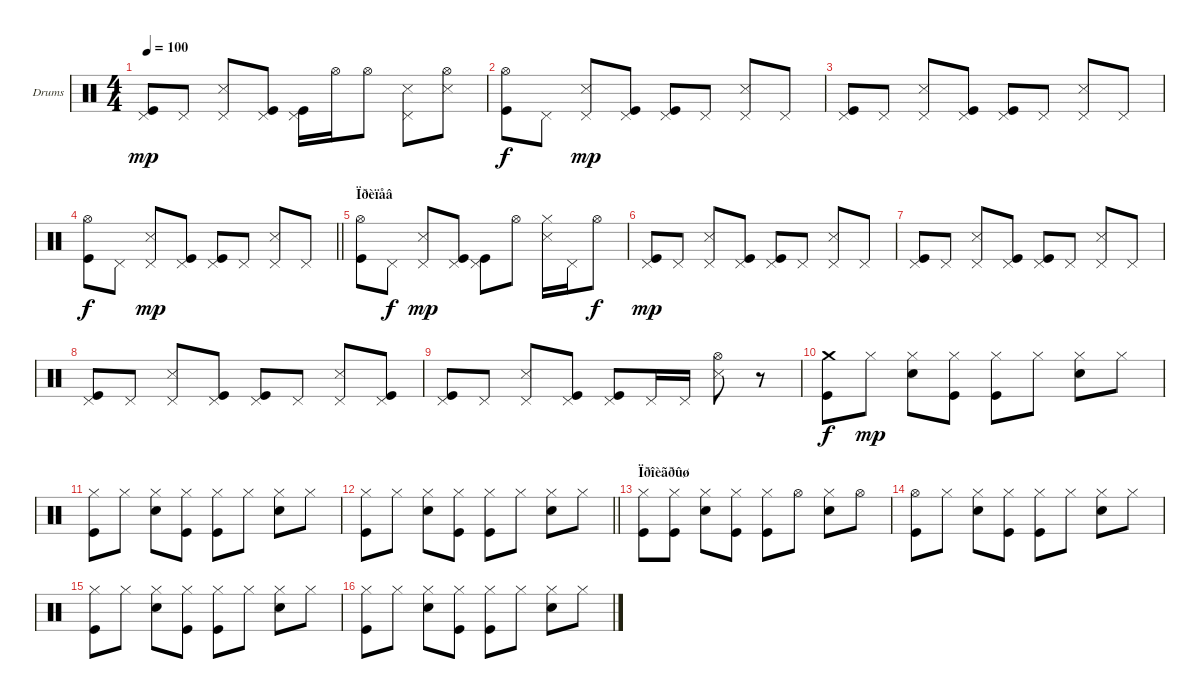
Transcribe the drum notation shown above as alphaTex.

\bracketExtendMode groupsimilarinstruments
\firstSystemTrackNameOrientation horizontal
\otherSystemsTrackNameOrientation horizontal
\track ("Drumkit" "Drums") {instrument percussion}
\staff {score}
\articulation defaults
\ts (4 4)
\tempo 100
\clef neutral
\scale
0.333333
\ks c
("Pedal Hi-Hat (hit)" "Kick (hit)").8{dy mp} "Pedal Hi-Hat (hit)".8 ("Pedal Hi-Hat (hit)" "Snare (side stick) 3").8 ("Pedal Hi-Hat (hit)" "Kick (hit)").8 ("Pedal Hi-Hat (hit)" "Kick (hit)").16 "Hi-Hat (open)".16 "Hi-Hat (open)".8 ("Pedal Hi-Hat (hit)" "Snare (side stick) 3").8 ("Hi-Hat (open)" "Snare (side stick) 3").8 |
\scale
0.333333 ("Hi-Hat (open)" "Kick (hit)").8{dy f} "Pedal Hi-Hat (hit)".8 ("Pedal Hi-Hat (hit)" "Snare (side stick) 3").8{dy mp} ("Pedal Hi-Hat (hit)" "Kick (hit)").8 ("Pedal Hi-Hat (hit)" "Kick (hit)").8 "Pedal Hi-Hat (hit)".8 ("Pedal Hi-Hat (hit)" "Snare (side stick) 3").8 "Pedal Hi-Hat (hit)".8 |
\scale
0.333333 ("Pedal Hi-Hat (hit)" "Kick (hit)").8 "Pedal Hi-Hat (hit)".8 ("Pedal Hi-Hat (hit)" "Snare (side stick) 3").8 ("Pedal Hi-Hat (hit)" "Kick (hit)").8 ("Pedal Hi-Hat (hit)" "Kick (hit)").8 "Pedal Hi-Hat (hit)".8 ("Pedal Hi-Hat (hit)" "Snare (side stick) 3").8 "Pedal Hi-Hat (hit)".8 |
\scale
0.333333
\barLineRight lightlight
("Hi-Hat (open)" "Kick (hit)").8{dy f} "Pedal Hi-Hat (hit)".8 ("Pedal Hi-Hat (hit)" "Snare (side stick) 3").8{dy mp} ("Pedal Hi-Hat (hit)" "Kick (hit)").8 ("Pedal Hi-Hat (hit)" "Kick (hit)").8 "Pedal Hi-Hat (hit)".8 ("Pedal Hi-Hat (hit)" "Snare (side stick) 3").8 "Pedal Hi-Hat (hit)".8 |
\section ("" "Ïðèïåâ")
\scale
0.333333 ("Hi-Hat (open)" "Kick (hit)").8 "Pedal Hi-Hat (hit)".8{dy f} ("Pedal Hi-Hat (hit)" "Snare (side stick) 3").8{dy mp} ("Pedal Hi-Hat (hit)" "Kick (hit)").8 ("Pedal Hi-Hat (hit)" "Kick (hit)").8 "Hi-Hat (open)".8 ("Hi-Hat (closed)" "Snare (side stick) 3").16 "Pedal Hi-Hat (hit)".16 "Hi-Hat (open)".8{dy f} |
\scale
0.333333 ("Pedal Hi-Hat (hit)" "Kick (hit)").8{dy mp} "Pedal Hi-Hat (hit)".8 ("Pedal Hi-Hat (hit)" "Snare (side stick) 3").8 ("Pedal Hi-Hat (hit)" "Kick (hit)").8 ("Pedal Hi-Hat (hit)" "Kick (hit)").8 "Pedal Hi-Hat (hit)".8 ("Pedal Hi-Hat (hit)" "Snare (side stick) 3").8 "Pedal Hi-Hat (hit)".8 |
\scale
0.333333 ("Pedal Hi-Hat (hit)" "Kick (hit)").8 "Pedal Hi-Hat (hit)".8 ("Pedal Hi-Hat (hit)" "Snare (side stick) 3").8 ("Pedal Hi-Hat (hit)" "Kick (hit)").8 ("Pedal Hi-Hat (hit)" "Kick (hit)").8 "Pedal Hi-Hat (hit)".8 ("Pedal Hi-Hat (hit)" "Snare (side stick) 3").8 "Pedal Hi-Hat (hit)".8 |
\scale
0.333333 ("Pedal Hi-Hat (hit)" "Kick (hit)").8 "Pedal Hi-Hat (hit)".8 ("Pedal Hi-Hat (hit)" "Snare (side stick) 3").8 ("Pedal Hi-Hat (hit)" "Kick (hit)").8 ("Pedal Hi-Hat (hit)" "Kick (hit)").8 "Pedal Hi-Hat (hit)".8 ("Pedal Hi-Hat (hit)" "Snare (side stick) 3").8 ("Pedal Hi-Hat (hit)" "Kick (hit)").8 |
\scale
0.333333 ("Pedal Hi-Hat (hit)" "Kick (hit)").8 "Pedal Hi-Hat (hit)".8 ("Pedal Hi-Hat (hit)" "Snare (side stick) 3").8 ("Pedal Hi-Hat (hit)" "Kick (hit)").8 ("Pedal Hi-Hat (hit)" "Kick (hit)").8 "Pedal Hi-Hat (hit)".16 "Pedal Hi-Hat (hit)".16 ("Hi-Hat (open)" "Snare (side stick) 3").8 r.8 |
\scale
0.333333 ("Crash medium (hit)" "Kick (hit)").8{dy f} "Hi-Hat (closed)".8{dy mp} ("Hi-Hat (closed)" "Snare (hit) 2").8 ("Hi-Hat (closed)" "Kick (hit)").8 ("Hi-Hat (closed)" "Kick (hit)").8 "Hi-Hat (closed)".8 ("Hi-Hat (closed)" "Snare (hit) 2").8 "Hi-Hat (closed)".8 |
\scale
0.333333 ("Hi-Hat (closed)" "Kick (hit)").8 "Hi-Hat (closed)".8 ("Hi-Hat (closed)" "Snare (hit) 2").8 ("Hi-Hat (closed)" "Kick (hit)").8 ("Hi-Hat (closed)" "Kick (hit)").8 "Hi-Hat (closed)".8 ("Hi-Hat (closed)" "Snare (hit) 2").8 "Hi-Hat (closed)".8 |
\scale
0.333333
\barLineRight lightlight
("Hi-Hat (closed)" "Kick (hit)").8 "Hi-Hat (closed)".8 ("Hi-Hat (closed)" "Snare (hit) 2").8 ("Hi-Hat (closed)" "Kick (hit)").8 ("Hi-Hat (closed)" "Kick (hit)").8 "Hi-Hat (closed)".8 ("Hi-Hat (closed)" "Snare (hit) 2").8 "Hi-Hat (closed)".8 |
\section ("" "Ïðîèãðûø")
\scale
0.333333 ("Hi-Hat (closed)" "Kick (hit)").8 ("Hi-Hat (closed)" "Kick (hit)").8 ("Hi-Hat (closed)" "Snare (hit) 2").8 ("Hi-Hat (closed)" "Kick (hit)").8 ("Hi-Hat (closed)" "Kick (hit)").8 "Hi-Hat (open)".8 ("Hi-Hat (closed)" "Snare (hit) 2").8 "Hi-Hat (open)".8 |
\scale
0.333333 ("Hi-Hat (open)" "Kick (hit)").8 "Hi-Hat (closed)".8 ("Hi-Hat (closed)" "Snare (hit) 2").8 ("Hi-Hat (closed)" "Kick (hit)").8 ("Hi-Hat (closed)" "Kick (hit)").8 "Hi-Hat (closed)".8 ("Hi-Hat (closed)" "Snare (hit) 2").8 "Hi-Hat (closed)".8 |
\scale
0.333333 ("Hi-Hat (closed)" "Kick (hit)").8 "Hi-Hat (closed)".8 ("Hi-Hat (closed)" "Snare (hit) 2").8 ("Hi-Hat (closed)" "Kick (hit)").8 ("Hi-Hat (closed)" "Kick (hit)").8 "Hi-Hat (closed)".8 ("Hi-Hat (closed)" "Snare (hit) 2").8 "Hi-Hat (closed)".8 |
\scale
0.333333 ("Hi-Hat (closed)" "Kick (hit)").8 "Hi-Hat (closed)".8 ("Hi-Hat (closed)" "Snare (hit) 2").8 ("Hi-Hat (closed)" "Kick (hit)").8 ("Hi-Hat (closed)" "Kick (hit)").8 "Hi-Hat (closed)".8 ("Hi-Hat (closed)" "Snare (hit) 2").8 "Hi-Hat (closed)".8
